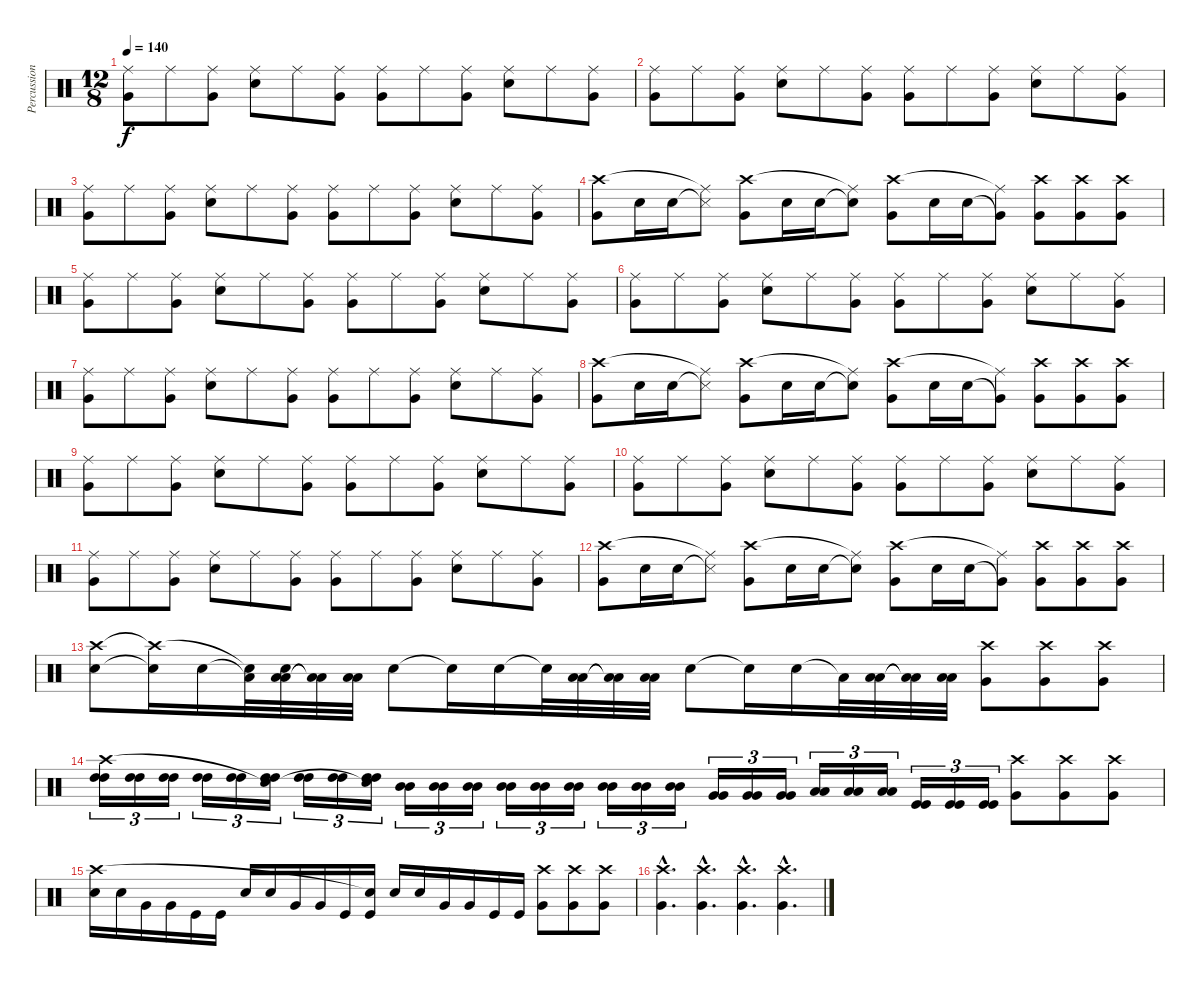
\track ("Percussion" "Percussion") {instrument percussion}
\staff {score}
\articulation defaults
\ts (12 8)
\tempo 140
\clef neutral
\ks c
("Very Low Tom (hit)" "Ride (middle)").8{dy f} "Ride (middle)".8 ("Very Low Tom (hit)" "Ride (middle)").8 ("Snare (hit) 2" "Ride (middle)").8 "Ride (middle)".8 ("Very Low Tom (hit)" "Ride (middle)").8 ("Very Low Tom (hit)" "Ride (middle)").8 "Ride (middle)".8 ("Very Low Tom (hit)" "Ride (middle)").8 ("Snare (hit) 2" "Ride (middle)").8 "Ride (middle)".8 ("Very Low Tom (hit)" "Ride (middle)").8 |
("Very Low Tom (hit)" "Ride (middle)").8 "Ride (middle)".8 ("Very Low Tom (hit)" "Ride (middle)").8 ("Snare (hit) 2" "Ride (middle)").8 "Ride (middle)".8 ("Very Low Tom (hit)" "Ride (middle)").8 ("Very Low Tom (hit)" "Ride (middle)").8 "Ride (middle)".8 ("Very Low Tom (hit)" "Ride (middle)").8 ("Snare (hit) 2" "Ride (middle)").8 "Ride (middle)".8 ("Very Low Tom (hit)" "Ride (middle)").8 |
("Very Low Tom (hit)" "Ride (middle)").8 "Ride (middle)".8 ("Very Low Tom (hit)" "Ride (middle)").8 ("Snare (hit) 2" "Ride (middle)").8 "Ride (middle)".8 ("Very Low Tom (hit)" "Ride (middle)").8 ("Very Low Tom (hit)" "Ride (middle)").8 "Ride (middle)".8 ("Very Low Tom (hit)" "Ride (middle)").8 ("Snare (hit) 2" "Ride (middle)").8 "Ride (middle)".8 ("Very Low Tom (hit)" "Ride (middle)").8 |
("Very Low Tom (hit)" "Crash high (hit)").8 "Snare (hit) 2".16 "Snare (hit) 2".16 ("Snare (side stick) 3"{t} "Ride (middle)"{t}).8 ("Very Low Tom (hit)" "Crash high (hit)").8 "Snare (hit) 2".16 "Snare (hit) 2".16 ("Snare (hit)"{t} "Ride (middle)"{t}).8 ("Very Low Tom (hit)" "Crash high (hit)").8 "Snare (hit) 2".16 "Snare (hit) 2".16 ("Very Low Tom (hit)"{t} "Ride (middle)"{t}).8 ("Very Low Tom (hit)" "Crash high (hit)").8 ("Very Low Tom (hit)" "Crash high (hit)").8 ("Very Low Tom (hit)" "Crash high (hit)").8 |
("Very Low Tom (hit)" "Ride (middle)").8 "Ride (middle)".8 ("Very Low Tom (hit)" "Ride (middle)").8 ("Snare (hit) 2" "Ride (middle)").8 "Ride (middle)".8 ("Very Low Tom (hit)" "Ride (middle)").8 ("Very Low Tom (hit)" "Ride (middle)").8 "Ride (middle)".8 ("Very Low Tom (hit)" "Ride (middle)").8 ("Snare (hit) 2" "Ride (middle)").8 "Ride (middle)".8 ("Very Low Tom (hit)" "Ride (middle)").8 |
("Very Low Tom (hit)" "Ride (middle)").8 "Ride (middle)".8 ("Very Low Tom (hit)" "Ride (middle)").8 ("Snare (hit) 2" "Ride (middle)").8 "Ride (middle)".8 ("Very Low Tom (hit)" "Ride (middle)").8 ("Very Low Tom (hit)" "Ride (middle)").8 "Ride (middle)".8 ("Very Low Tom (hit)" "Ride (middle)").8 ("Snare (hit) 2" "Ride (middle)").8 "Ride (middle)".8 ("Very Low Tom (hit)" "Ride (middle)").8 |
("Very Low Tom (hit)" "Ride (middle)").8 "Ride (middle)".8 ("Very Low Tom (hit)" "Ride (middle)").8 ("Snare (hit) 2" "Ride (middle)").8 "Ride (middle)".8 ("Very Low Tom (hit)" "Ride (middle)").8 ("Very Low Tom (hit)" "Ride (middle)").8 "Ride (middle)".8 ("Very Low Tom (hit)" "Ride (middle)").8 ("Snare (hit) 2" "Ride (middle)").8 "Ride (middle)".8 ("Very Low Tom (hit)" "Ride (middle)").8 |
("Very Low Tom (hit)" "Crash high (hit)").8 "Snare (hit) 2".16 "Snare (hit) 2".16 ("Snare (side stick) 3"{t} "Ride (middle)"{t}).8 ("Very Low Tom (hit)" "Crash high (hit)").8 "Snare (hit) 2".16 "Snare (hit) 2".16 ("Snare (hit)"{t} "Ride (middle)"{t}).8 ("Very Low Tom (hit)" "Crash high (hit)").8 "Snare (hit) 2".16 "Snare (hit) 2".16 ("Very Low Tom (hit)"{t} "Ride (middle)"{t}).8 ("Very Low Tom (hit)" "Crash high (hit)").8 ("Very Low Tom (hit)" "Crash high (hit)").8 ("Very Low Tom (hit)" "Crash high (hit)").8 |
("Very Low Tom (hit)" "Ride (middle)").8 "Ride (middle)".8 ("Very Low Tom (hit)" "Ride (middle)").8 ("Snare (hit) 2" "Ride (middle)").8 "Ride (middle)".8 ("Very Low Tom (hit)" "Ride (middle)").8 ("Very Low Tom (hit)" "Ride (middle)").8 "Ride (middle)".8 ("Very Low Tom (hit)" "Ride (middle)").8 ("Snare (hit) 2" "Ride (middle)").8 "Ride (middle)".8 ("Very Low Tom (hit)" "Ride (middle)").8 |
("Very Low Tom (hit)" "Ride (middle)").8 "Ride (middle)".8 ("Very Low Tom (hit)" "Ride (middle)").8 ("Snare (hit) 2" "Ride (middle)").8 "Ride (middle)".8 ("Very Low Tom (hit)" "Ride (middle)").8 ("Very Low Tom (hit)" "Ride (middle)").8 "Ride (middle)".8 ("Very Low Tom (hit)" "Ride (middle)").8 ("Snare (hit) 2" "Ride (middle)").8 "Ride (middle)".8 ("Very Low Tom (hit)" "Ride (middle)").8 |
("Very Low Tom (hit)" "Ride (middle)").8 "Ride (middle)".8 ("Very Low Tom (hit)" "Ride (middle)").8 ("Snare (hit) 2" "Ride (middle)").8 "Ride (middle)".8 ("Very Low Tom (hit)" "Ride (middle)").8 ("Very Low Tom (hit)" "Ride (middle)").8 "Ride (middle)".8 ("Very Low Tom (hit)" "Ride (middle)").8 ("Snare (hit) 2" "Ride (middle)").8 "Ride (middle)".8 ("Very Low Tom (hit)" "Ride (middle)").8 |
("Very Low Tom (hit)" "Crash high (hit)").8 "Snare (hit) 2".16 "Snare (hit) 2".16 ("Snare (side stick) 3"{t} "Ride (middle)"{t}).8 ("Very Low Tom (hit)" "Crash high (hit)").8 "Snare (hit) 2".16 "Snare (hit) 2".16 ("Snare (hit)"{t} "Ride (middle)"{t}).8 ("Very Low Tom (hit)" "Crash high (hit)").8 "Snare (hit) 2".16 "Snare (hit) 2".16 ("Very Low Tom (hit)"{t} "Ride (middle)"{t}).8 ("Very Low Tom (hit)" "Crash high (hit)").8 ("Very Low Tom (hit)" "Crash high (hit)").8 ("Very Low Tom (hit)" "Crash high (hit)").8 |
("Snare (hit) 2" "Crash high (hit)").8 ("Snare (hit) 2"{t} "Crash high (hit)"{t}).16 "Snare (hit) 2".16 ("Low Floor Tom (hit)"{t} "Snare (hit)"{t}).32 ("Low Floor Tom (hit)" "Low Floor Tom (hit)" "Snare (hit)").32 ("Low Floor Tom (hit)"{t} "Low Floor Tom (hit)"{t}).32 ("Low Floor Tom (hit)" "Low Floor Tom (hit)").32 "Snare (hit) 2".8 "Snare (hit) 2"{t}.16 "Snare (hit) 2".16 "Snare (hit) 2"{t}.32 ("Low Floor Tom (hit)" "Low Floor Tom (hit)").32 ("Low Floor Tom (hit)"{t} "Low Floor Tom (hit)"{t}).32 ("Low Floor Tom (hit)" "Low Floor Tom (hit)").32 "Snare (hit) 2".8 "Snare (hit) 2"{t}.16 "Snare (hit) 2".16 "Low Floor Tom (hit)"{t}.32 ("Low Floor Tom (hit)" "Low Floor Tom (hit)").32 ("Low Floor Tom (hit)"{t} "Low Floor Tom (hit)"{t}).32 ("Low Floor Tom (hit)" "Low Floor Tom (hit)").32 ("Very Low Tom (hit)" "Crash high (hit)").8 ("Very Low Tom (hit)" "Crash high (hit)").8 ("Very Low Tom (hit)" "Crash high (hit)").8 |
("High Tom (hit)" "High Tom (hit)" "Crash high (hit)").16{tu (3 2)} ("High Tom (hit)" "High Tom (hit)").16{tu (3 2)} ("High Tom (hit)" "High Tom (hit)").16{tu (3 2)} ("High Tom (hit)" "High Tom (hit)").16{tu (3 2)} ("High Tom (hit)" "High Tom (hit)").16{tu (3 2)} ("High Tom (hit)" "High Tom (hit)" "Snare (hit)"{t}).16{tu (3 2)} ("High Tom (hit)" "High Tom (hit)").16{tu (3 2)} ("High Tom (hit)" "High Tom (hit)").16{tu (3 2)} ("High Tom (hit)" "High Tom (hit)" "Snare (hit)"{t}).16{tu (3 2)} ("Mid Tom (hit)" "Mid Tom (hit)").16{tu (3 2)} ("Mid Tom (hit)" "Mid Tom (hit)").16{tu (3 2)} ("Mid Tom (hit)" "Mid Tom (hit)").16{tu (3 2)} ("Mid Tom (hit)" "Mid Tom (hit)").16{tu (3 2)} ("Mid Tom (hit)" "Mid Tom (hit)").16{tu (3 2)} ("Mid Tom (hit)" "Mid Tom (hit)").16{tu (3 2)} ("Mid Tom (hit)" "Mid Tom (hit)").16{tu (3 2)} ("Mid Tom (hit)" "Mid Tom (hit)").16{tu (3 2)} ("Mid Tom (hit)" "Mid Tom (hit)").16{tu (3 2)} ("Very Low Tom (hit)" "Very Low Tom (hit)").16{tu (3 2)} ("Very Low Tom (hit)" "Very Low Tom (hit)").16{tu (3 2)} ("Very Low Tom (hit)" "Very Low Tom (hit)").16{tu (3 2)} ("Low Floor Tom (hit)" "Low Floor Tom (hit)").16{tu (3 2)} ("Low Floor Tom (hit)" "Low Floor Tom (hit)").16{tu (3 2)} ("Low Floor Tom (hit)" "Low Floor Tom (hit)").16{tu (3 2)} ("Kick (hit)" "Kick (hit)").16{tu (3 2)} ("Kick (hit)" "Kick (hit)").16{tu (3 2)} ("Kick (hit)" "Kick (hit)").16{tu (3 2)} ("Very Low Tom (hit)" "Crash high (hit)").8 ("Very Low Tom (hit)" "Crash high (hit)").8 ("Very Low Tom (hit)" "Crash high (hit)").8 |
("Snare (hit) 2" "Crash high (hit)").16 "Snare (hit) 2".16 "Very Low Tom (hit)".16 "Very Low Tom (hit)".16 "Kick (hit)".16 "Kick (hit)".16 "Snare (hit) 2".16 "Snare (hit) 2".16 "Very Low Tom (hit)".16 "Very Low Tom (hit)".16 "Kick (hit)".16 ("Kick (hit)" "Snare (hit)"{t}).16 "Snare (hit) 2".16 "Snare (hit) 2".16 "Very Low Tom (hit)".16 "Very Low Tom (hit)".16 "Kick (hit)".16 "Kick (hit)".16 ("Very Low Tom (hit)" "Crash high (hit)").8 ("Very Low Tom (hit)" "Crash high (hit)").8 ("Very Low Tom (hit)" "Crash high (hit)").8 |
("Very Low Tom (hit)"{hac} "Crash high (hit)"{hac}).4{d} ("Very Low Tom (hit)"{hac} "Crash high (hit)"{hac}).4{d} ("Very Low Tom (hit)"{hac} "Crash high (hit)"{hac}).4{d} ("Very Low Tom (hit)"{hac} "Crash high (hit)"{hac}).4{d}
